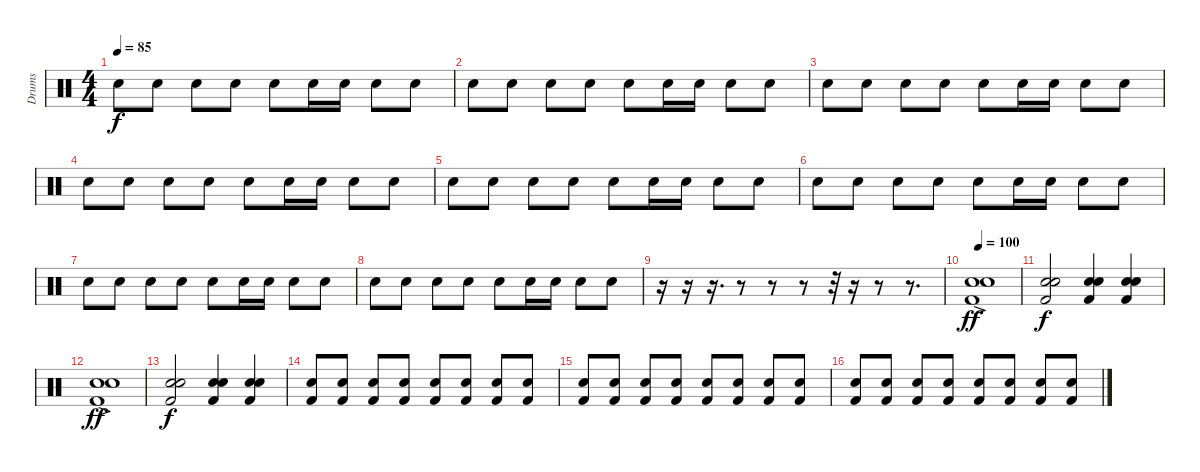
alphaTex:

\track ("Drums" "Drums") {instrument percussion}
\staff {score}
\articulation defaults
\ts (4 4)
\tempo 85
\clef neutral
\ks c "Hand Clap (hit)".8{dy f} "Hand Clap (hit)".8 "Hand Clap (hit)".8 "Hand Clap (hit)".8 "Hand Clap (hit)".8 "Hand Clap (hit)".16 "Hand Clap (hit)".16 "Hand Clap (hit)".8 "Hand Clap (hit)".8
|
"Hand Clap (hit)".8 "Hand Clap (hit)".8 "Hand Clap (hit)".8 "Hand Clap (hit)".8 "Hand Clap (hit)".8 "Hand Clap (hit)".16 "Hand Clap (hit)".16 "Hand Clap (hit)".8 "Hand Clap (hit)".8 |
"Hand Clap (hit)".8 "Hand Clap (hit)".8 "Hand Clap (hit)".8 "Hand Clap (hit)".8 "Hand Clap (hit)".8 "Hand Clap (hit)".16 "Hand Clap (hit)".16 "Hand Clap (hit)".8 "Hand Clap (hit)".8 |
"Hand Clap (hit)".8 "Hand Clap (hit)".8 "Hand Clap (hit)".8 "Hand Clap (hit)".8 "Hand Clap (hit)".8 "Hand Clap (hit)".16 "Hand Clap (hit)".16 "Hand Clap (hit)".8 "Hand Clap (hit)".8 |
"Hand Clap (hit)".8 "Hand Clap (hit)".8 "Hand Clap (hit)".8 "Hand Clap (hit)".8 "Hand Clap (hit)".8 "Hand Clap (hit)".16 "Hand Clap (hit)".16 "Hand Clap (hit)".8 "Hand Clap (hit)".8 |
"Hand Clap (hit)".8 "Hand Clap (hit)".8 "Hand Clap (hit)".8 "Hand Clap (hit)".8 "Hand Clap (hit)".8 "Hand Clap (hit)".16 "Hand Clap (hit)".16 "Hand Clap (hit)".8 "Hand Clap (hit)".8 |
"Hand Clap (hit)".8 "Hand Clap (hit)".8 "Hand Clap (hit)".8 "Hand Clap (hit)".8 "Hand Clap (hit)".8 "Hand Clap (hit)".16 "Hand Clap (hit)".16 "Hand Clap (hit)".8 "Hand Clap (hit)".8 |
"Hand Clap (hit)".8 "Hand Clap (hit)".8 "Hand Clap (hit)".8 "Hand Clap (hit)".8 "Hand Clap (hit)".8 "Hand Clap (hit)".16 "Hand Clap (hit)".16 "Hand Clap (hit)".8 "Hand Clap (hit)".8 |
r.16 r.16 r.16{d} r.8 r.8 r.8 r.32 r.16 r.8 r.8{d} |
\tempo 100
("Electric Snare (hit)"{ac} "Snare (hit) 2" "Kick (hit) 2").1{dy ff volume 12} |
("Electric Snare (hit)" "Snare (hit) 2" "Kick (hit) 2").2{dy f} ("Electric Snare (hit)" "Snare (hit) 2" "Kick (hit) 2").4 ("Electric Snare (hit)" "Snare (hit) 2" "Kick (hit) 2").4 |
("Electric Snare (hit)"{ac} "Snare (hit) 2" "Kick (hit) 2").1{dy ff} |
("Electric Snare (hit)" "Snare (hit) 2" "Kick (hit) 2").2{dy f} ("Electric Snare (hit)" "Snare (hit) 2" "Kick (hit) 2").4 ("Electric Snare (hit)" "Snare (hit) 2" "Kick (hit) 2").4 |
("Snare (hit) 2" "Kick (hit) 2").8 ("Snare (hit) 2" "Kick (hit) 2").8 ("Snare (hit) 2" "Kick (hit) 2").8 ("Snare (hit) 2" "Kick (hit) 2").8 ("Snare (hit) 2" "Kick (hit) 2").8 ("Snare (hit) 2" "Kick (hit) 2").8 ("Snare (hit) 2" "Kick (hit) 2").8 ("Snare (hit) 2" "Kick (hit) 2").8 |
("Snare (hit) 2" "Kick (hit) 2").8 ("Snare (hit) 2" "Kick (hit) 2").8 ("Snare (hit) 2" "Kick (hit) 2").8 ("Snare (hit) 2" "Kick (hit) 2").8 ("Snare (hit) 2" "Kick (hit) 2").8 ("Snare (hit) 2" "Kick (hit) 2").8 ("Snare (hit) 2" "Kick (hit) 2").8 ("Snare (hit) 2" "Kick (hit) 2").8 |
("Snare (hit) 2" "Kick (hit) 2").8 ("Snare (hit) 2" "Kick (hit) 2").8 ("Snare (hit) 2" "Kick (hit) 2").8 ("Snare (hit) 2" "Kick (hit) 2").8 ("Snare (hit) 2" "Kick (hit) 2").8 ("Snare (hit) 2" "Kick (hit) 2").8 ("Snare (hit) 2" "Kick (hit) 2").8 ("Snare (hit) 2" "Kick (hit) 2").8
